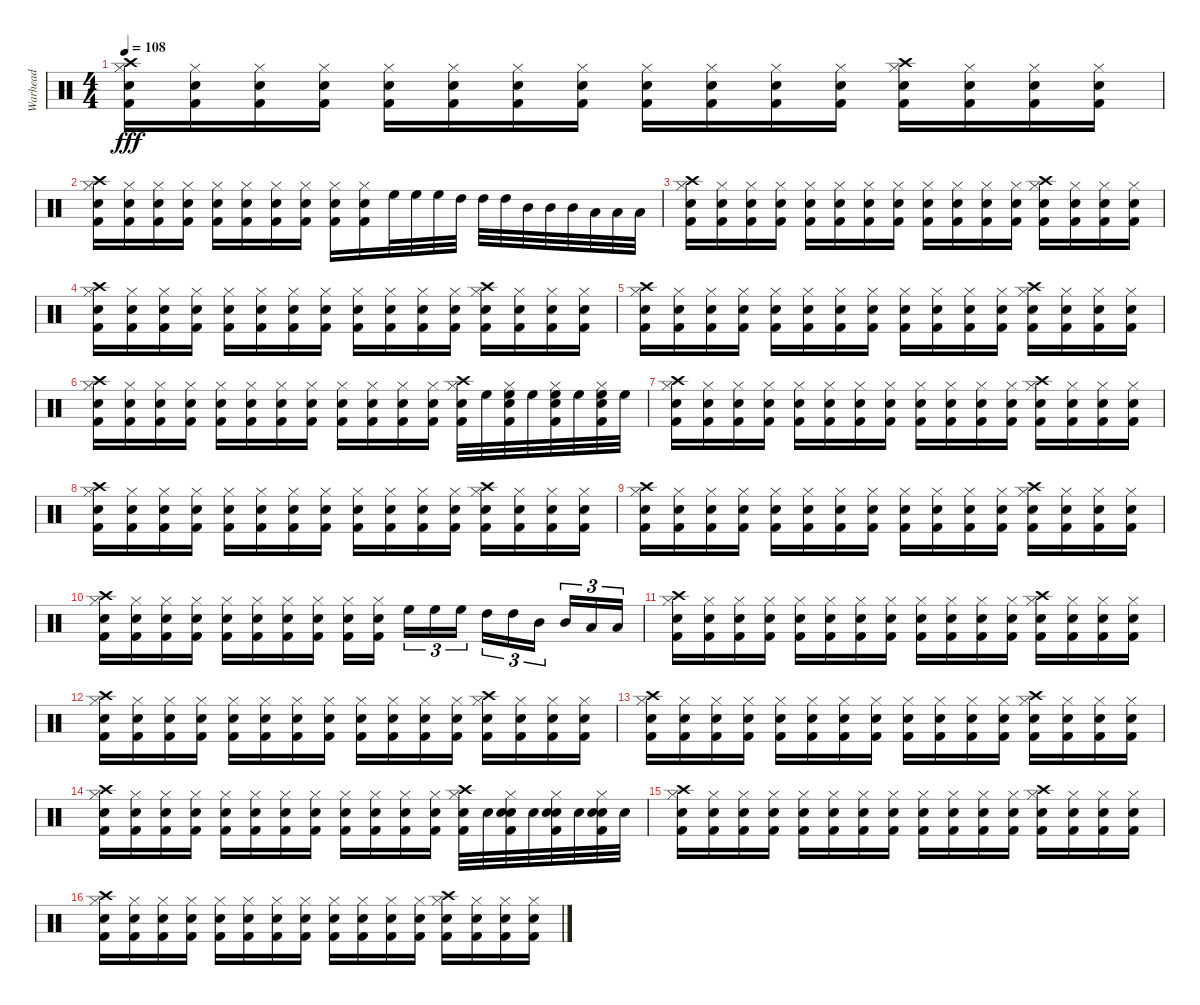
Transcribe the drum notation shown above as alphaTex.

\track ("Warhead" "Warhead") {instrument percussion}
\staff {score}
\articulation defaults
\ts (4 4)
\tempo 108
\clef neutral
\ks c
("Kick (hit) 2" "Electric Snare (hit)" "Crash high (hit)" "Hi-Hat (closed)").16{dy fff} ("Kick (hit) 2" "Electric Snare (hit)" "Hi-Hat (closed)").16 ("Kick (hit) 2" "Electric Snare (hit)" "Hi-Hat (closed)").16 ("Kick (hit) 2" "Electric Snare (hit)" "Hi-Hat (closed)").16 ("Kick (hit) 2" "Electric Snare (hit)" "Hi-Hat (closed)").16 ("Kick (hit) 2" "Electric Snare (hit)" "Hi-Hat (closed)").16 ("Kick (hit) 2" "Electric Snare (hit)" "Hi-Hat (closed)").16 ("Kick (hit) 2" "Electric Snare (hit)" "Hi-Hat (closed)").16 ("Kick (hit) 2" "Electric Snare (hit)" "Hi-Hat (closed)").16 ("Kick (hit) 2" "Electric Snare (hit)" "Hi-Hat (closed)").16 ("Kick (hit) 2" "Electric Snare (hit)" "Hi-Hat (closed)").16 ("Kick (hit) 2" "Electric Snare (hit)" "Hi-Hat (closed)").16 ("Kick (hit) 2" "Electric Snare (hit)" "Crash high (hit)" "Hi-Hat (closed)").16 ("Kick (hit) 2" "Electric Snare (hit)" "Hi-Hat (closed)").16 ("Kick (hit) 2" "Electric Snare (hit)" "Hi-Hat (closed)").16 ("Kick (hit) 2" "Electric Snare (hit)" "Hi-Hat (closed)").16 |
("Kick (hit) 2" "Electric Snare (hit)" "Crash high (hit)" "Hi-Hat (closed)").16 ("Kick (hit) 2" "Electric Snare (hit)" "Hi-Hat (closed)").16 ("Kick (hit) 2" "Electric Snare (hit)" "Hi-Hat (closed)").16 ("Kick (hit) 2" "Electric Snare (hit)" "Hi-Hat (closed)").16 ("Kick (hit) 2" "Electric Snare (hit)" "Hi-Hat (closed)").16 ("Kick (hit) 2" "Electric Snare (hit)" "Hi-Hat (closed)").16 ("Kick (hit) 2" "Electric Snare (hit)" "Hi-Hat (closed)").16 ("Kick (hit) 2" "Electric Snare (hit)" "Hi-Hat (closed)").16 ("Kick (hit) 2" "Electric Snare (hit)" "Hi-Hat (closed)").16 ("Kick (hit) 2" "Electric Snare (hit)" "Hi-Hat (closed)").16 "High Floor Tom (hit)".32 "High Floor Tom (hit)".32 "High Floor Tom (hit)".32 "High Tom (hit)".32 "High Tom (hit)".32 "High Tom (hit)".32 "Mid Tom (hit)".32 "Mid Tom (hit)".32 "Mid Tom (hit)".32 "Low Tom (hit)".32 "Low Tom (hit)".32 "Low Tom (hit)".32 |
("Kick (hit) 2" "Electric Snare (hit)" "Crash high (hit)" "Hi-Hat (closed)").16 ("Kick (hit) 2" "Electric Snare (hit)" "Hi-Hat (closed)").16 ("Kick (hit) 2" "Electric Snare (hit)" "Hi-Hat (closed)").16 ("Kick (hit) 2" "Electric Snare (hit)" "Hi-Hat (closed)").16 ("Kick (hit) 2" "Electric Snare (hit)" "Hi-Hat (closed)").16 ("Kick (hit) 2" "Electric Snare (hit)" "Hi-Hat (closed)").16 ("Kick (hit) 2" "Electric Snare (hit)" "Hi-Hat (closed)").16 ("Kick (hit) 2" "Electric Snare (hit)" "Hi-Hat (closed)").16 ("Kick (hit) 2" "Electric Snare (hit)" "Hi-Hat (closed)").16 ("Kick (hit) 2" "Electric Snare (hit)" "Hi-Hat (closed)").16 ("Kick (hit) 2" "Electric Snare (hit)" "Hi-Hat (closed)").16 ("Kick (hit) 2" "Electric Snare (hit)" "Hi-Hat (closed)").16 ("Kick (hit) 2" "Electric Snare (hit)" "Crash high (hit)" "Hi-Hat (closed)").16 ("Kick (hit) 2" "Electric Snare (hit)" "Hi-Hat (closed)").16 ("Kick (hit) 2" "Electric Snare (hit)" "Hi-Hat (closed)").16 ("Kick (hit) 2" "Electric Snare (hit)" "Hi-Hat (closed)").16 |
("Kick (hit) 2" "Electric Snare (hit)" "Crash high (hit)" "Hi-Hat (closed)").16 ("Kick (hit) 2" "Electric Snare (hit)" "Hi-Hat (closed)").16 ("Kick (hit) 2" "Electric Snare (hit)" "Hi-Hat (closed)").16 ("Kick (hit) 2" "Electric Snare (hit)" "Hi-Hat (closed)").16 ("Kick (hit) 2" "Electric Snare (hit)" "Hi-Hat (closed)").16 ("Kick (hit) 2" "Electric Snare (hit)" "Hi-Hat (closed)").16 ("Kick (hit) 2" "Electric Snare (hit)" "Hi-Hat (closed)").16 ("Kick (hit) 2" "Electric Snare (hit)" "Hi-Hat (closed)").16 ("Kick (hit) 2" "Electric Snare (hit)" "Hi-Hat (closed)").16 ("Kick (hit) 2" "Electric Snare (hit)" "Hi-Hat (closed)").16 ("Kick (hit) 2" "Electric Snare (hit)" "Hi-Hat (closed)").16 ("Kick (hit) 2" "Electric Snare (hit)" "Hi-Hat (closed)").16 ("Kick (hit) 2" "Electric Snare (hit)" "Crash high (hit)" "Hi-Hat (closed)").16 ("Kick (hit) 2" "Electric Snare (hit)" "Hi-Hat (closed)").16 ("Kick (hit) 2" "Electric Snare (hit)" "Hi-Hat (closed)").16 ("Kick (hit) 2" "Electric Snare (hit)" "Hi-Hat (closed)").16 |
("Kick (hit) 2" "Electric Snare (hit)" "Crash high (hit)" "Hi-Hat (closed)").16 ("Kick (hit) 2" "Electric Snare (hit)" "Hi-Hat (closed)").16 ("Kick (hit) 2" "Electric Snare (hit)" "Hi-Hat (closed)").16 ("Kick (hit) 2" "Electric Snare (hit)" "Hi-Hat (closed)").16 ("Kick (hit) 2" "Electric Snare (hit)" "Hi-Hat (closed)").16 ("Kick (hit) 2" "Electric Snare (hit)" "Hi-Hat (closed)").16 ("Kick (hit) 2" "Electric Snare (hit)" "Hi-Hat (closed)").16 ("Kick (hit) 2" "Electric Snare (hit)" "Hi-Hat (closed)").16 ("Kick (hit) 2" "Electric Snare (hit)" "Hi-Hat (closed)").16 ("Kick (hit) 2" "Electric Snare (hit)" "Hi-Hat (closed)").16 ("Kick (hit) 2" "Electric Snare (hit)" "Hi-Hat (closed)").16 ("Kick (hit) 2" "Electric Snare (hit)" "Hi-Hat (closed)").16 ("Kick (hit) 2" "Electric Snare (hit)" "Crash high (hit)" "Hi-Hat (closed)").16 ("Kick (hit) 2" "Electric Snare (hit)" "Hi-Hat (closed)").16 ("Kick (hit) 2" "Electric Snare (hit)" "Hi-Hat (closed)").16 ("Kick (hit) 2" "Electric Snare (hit)" "Hi-Hat (closed)").16 |
("Kick (hit) 2" "Electric Snare (hit)" "Crash high (hit)" "Hi-Hat (closed)").16 ("Kick (hit) 2" "Electric Snare (hit)" "Hi-Hat (closed)").16 ("Kick (hit) 2" "Electric Snare (hit)" "Hi-Hat (closed)").16 ("Kick (hit) 2" "Electric Snare (hit)" "Hi-Hat (closed)").16 ("Kick (hit) 2" "Electric Snare (hit)" "Hi-Hat (closed)").16 ("Kick (hit) 2" "Electric Snare (hit)" "Hi-Hat (closed)").16 ("Kick (hit) 2" "Electric Snare (hit)" "Hi-Hat (closed)").16 ("Kick (hit) 2" "Electric Snare (hit)" "Hi-Hat (closed)").16 ("Kick (hit) 2" "Electric Snare (hit)" "Hi-Hat (closed)").16 ("Kick (hit) 2" "Electric Snare (hit)" "Hi-Hat (closed)").16 ("Kick (hit) 2" "Electric Snare (hit)" "Hi-Hat (closed)").16 ("Kick (hit) 2" "Electric Snare (hit)" "Hi-Hat (closed)").16 ("Kick (hit) 2" "Electric Snare (hit)" "Crash high (hit)" "Hi-Hat (closed)").32 "High Floor Tom (hit)".32 ("Kick (hit) 2" "Electric Snare (hit)" "Hi-Hat (closed)" "High Floor Tom (hit)").32 "High Floor Tom (hit)".32 ("Kick (hit) 2" "Electric Snare (hit)" "Hi-Hat (closed)" "High Floor Tom (hit)").32 "High Floor Tom (hit)".32 ("Kick (hit) 2" "Electric Snare (hit)" "Hi-Hat (closed)" "High Floor Tom (hit)").32 "High Floor Tom (hit)".32 |
("Kick (hit) 2" "Electric Snare (hit)" "Crash high (hit)" "Hi-Hat (closed)").16 ("Kick (hit) 2" "Electric Snare (hit)" "Hi-Hat (closed)").16 ("Kick (hit) 2" "Electric Snare (hit)" "Hi-Hat (closed)").16 ("Kick (hit) 2" "Electric Snare (hit)" "Hi-Hat (closed)").16 ("Kick (hit) 2" "Electric Snare (hit)" "Hi-Hat (closed)").16 ("Kick (hit) 2" "Electric Snare (hit)" "Hi-Hat (closed)").16 ("Kick (hit) 2" "Electric Snare (hit)" "Hi-Hat (closed)").16 ("Kick (hit) 2" "Electric Snare (hit)" "Hi-Hat (closed)").16 ("Kick (hit) 2" "Electric Snare (hit)" "Hi-Hat (closed)").16 ("Kick (hit) 2" "Electric Snare (hit)" "Hi-Hat (closed)").16 ("Kick (hit) 2" "Electric Snare (hit)" "Hi-Hat (closed)").16 ("Kick (hit) 2" "Electric Snare (hit)" "Hi-Hat (closed)").16 ("Kick (hit) 2" "Electric Snare (hit)" "Crash high (hit)" "Hi-Hat (closed)").16 ("Kick (hit) 2" "Electric Snare (hit)" "Hi-Hat (closed)").16 ("Kick (hit) 2" "Electric Snare (hit)" "Hi-Hat (closed)").16 ("Kick (hit) 2" "Electric Snare (hit)" "Hi-Hat (closed)").16 |
("Kick (hit) 2" "Electric Snare (hit)" "Crash high (hit)" "Hi-Hat (closed)").16 ("Kick (hit) 2" "Electric Snare (hit)" "Hi-Hat (closed)").16 ("Kick (hit) 2" "Electric Snare (hit)" "Hi-Hat (closed)").16 ("Kick (hit) 2" "Electric Snare (hit)" "Hi-Hat (closed)").16 ("Kick (hit) 2" "Electric Snare (hit)" "Hi-Hat (closed)").16 ("Kick (hit) 2" "Electric Snare (hit)" "Hi-Hat (closed)").16 ("Kick (hit) 2" "Electric Snare (hit)" "Hi-Hat (closed)").16 ("Kick (hit) 2" "Electric Snare (hit)" "Hi-Hat (closed)").16 ("Kick (hit) 2" "Electric Snare (hit)" "Hi-Hat (closed)").16 ("Kick (hit) 2" "Electric Snare (hit)" "Hi-Hat (closed)").16 ("Kick (hit) 2" "Electric Snare (hit)" "Hi-Hat (closed)").16 ("Kick (hit) 2" "Electric Snare (hit)" "Hi-Hat (closed)").16 ("Kick (hit) 2" "Electric Snare (hit)" "Crash high (hit)" "Hi-Hat (closed)").16 ("Kick (hit) 2" "Electric Snare (hit)" "Hi-Hat (closed)").16 ("Kick (hit) 2" "Electric Snare (hit)" "Hi-Hat (closed)").16 ("Kick (hit) 2" "Electric Snare (hit)" "Hi-Hat (closed)").16 |
("Kick (hit) 2" "Electric Snare (hit)" "Crash high (hit)" "Hi-Hat (closed)").16 ("Kick (hit) 2" "Electric Snare (hit)" "Hi-Hat (closed)").16 ("Kick (hit) 2" "Electric Snare (hit)" "Hi-Hat (closed)").16 ("Kick (hit) 2" "Electric Snare (hit)" "Hi-Hat (closed)").16 ("Kick (hit) 2" "Electric Snare (hit)" "Hi-Hat (closed)").16 ("Kick (hit) 2" "Electric Snare (hit)" "Hi-Hat (closed)").16 ("Kick (hit) 2" "Electric Snare (hit)" "Hi-Hat (closed)").16 ("Kick (hit) 2" "Electric Snare (hit)" "Hi-Hat (closed)").16 ("Kick (hit) 2" "Electric Snare (hit)" "Hi-Hat (closed)").16 ("Kick (hit) 2" "Electric Snare (hit)" "Hi-Hat (closed)").16 ("Kick (hit) 2" "Electric Snare (hit)" "Hi-Hat (closed)").16 ("Kick (hit) 2" "Electric Snare (hit)" "Hi-Hat (closed)").16 ("Kick (hit) 2" "Electric Snare (hit)" "Crash high (hit)" "Hi-Hat (closed)").16 ("Kick (hit) 2" "Electric Snare (hit)" "Hi-Hat (closed)").16 ("Kick (hit) 2" "Electric Snare (hit)" "Hi-Hat (closed)").16 ("Kick (hit) 2" "Electric Snare (hit)" "Hi-Hat (closed)").16 |
("Kick (hit) 2" "Electric Snare (hit)" "Crash high (hit)" "Hi-Hat (closed)").16 ("Kick (hit) 2" "Electric Snare (hit)" "Hi-Hat (closed)").16 ("Kick (hit) 2" "Electric Snare (hit)" "Hi-Hat (closed)").16 ("Kick (hit) 2" "Electric Snare (hit)" "Hi-Hat (closed)").16 ("Kick (hit) 2" "Electric Snare (hit)" "Hi-Hat (closed)").16 ("Kick (hit) 2" "Electric Snare (hit)" "Hi-Hat (closed)").16 ("Kick (hit) 2" "Electric Snare (hit)" "Hi-Hat (closed)").16 ("Kick (hit) 2" "Electric Snare (hit)" "Hi-Hat (closed)").16 ("Kick (hit) 2" "Electric Snare (hit)" "Hi-Hat (closed)").16 ("Kick (hit) 2" "Electric Snare (hit)" "Hi-Hat (closed)").16{beam splitsecondary} "High Floor Tom (hit)".16{tu (3 2)} "High Floor Tom (hit)".16{tu (3 2)} "High Floor Tom (hit)".16{tu (3 2)} "High Tom (hit)".16{tu (3 2)} "High Tom (hit)".16{tu (3 2)} "Mid Tom (hit)".16{tu (3 2) beam splitsecondary} "Mid Tom (hit)".16{tu (3 2)} "Low Tom (hit)".16{tu (3 2)} "Low Tom (hit)".16{tu (3 2)} |
("Kick (hit) 2" "Electric Snare (hit)" "Crash high (hit)" "Hi-Hat (closed)").16 ("Kick (hit) 2" "Electric Snare (hit)" "Hi-Hat (closed)").16 ("Kick (hit) 2" "Electric Snare (hit)" "Hi-Hat (closed)").16 ("Kick (hit) 2" "Electric Snare (hit)" "Hi-Hat (closed)").16 ("Kick (hit) 2" "Electric Snare (hit)" "Hi-Hat (closed)").16 ("Kick (hit) 2" "Electric Snare (hit)" "Hi-Hat (closed)").16 ("Kick (hit) 2" "Electric Snare (hit)" "Hi-Hat (closed)").16 ("Kick (hit) 2" "Electric Snare (hit)" "Hi-Hat (closed)").16 ("Kick (hit) 2" "Electric Snare (hit)" "Hi-Hat (closed)").16 ("Kick (hit) 2" "Electric Snare (hit)" "Hi-Hat (closed)").16 ("Kick (hit) 2" "Electric Snare (hit)" "Hi-Hat (closed)").16 ("Kick (hit) 2" "Electric Snare (hit)" "Hi-Hat (closed)").16 ("Kick (hit) 2" "Electric Snare (hit)" "Crash high (hit)" "Hi-Hat (closed)").16 ("Kick (hit) 2" "Electric Snare (hit)" "Hi-Hat (closed)").16 ("Kick (hit) 2" "Electric Snare (hit)" "Hi-Hat (closed)").16 ("Kick (hit) 2" "Electric Snare (hit)" "Hi-Hat (closed)").16 |
("Kick (hit) 2" "Electric Snare (hit)" "Crash high (hit)" "Hi-Hat (closed)").16 ("Kick (hit) 2" "Electric Snare (hit)" "Hi-Hat (closed)").16 ("Kick (hit) 2" "Electric Snare (hit)" "Hi-Hat (closed)").16 ("Kick (hit) 2" "Electric Snare (hit)" "Hi-Hat (closed)").16 ("Kick (hit) 2" "Electric Snare (hit)" "Hi-Hat (closed)").16 ("Kick (hit) 2" "Electric Snare (hit)" "Hi-Hat (closed)").16 ("Kick (hit) 2" "Electric Snare (hit)" "Hi-Hat (closed)").16 ("Kick (hit) 2" "Electric Snare (hit)" "Hi-Hat (closed)").16 ("Kick (hit) 2" "Electric Snare (hit)" "Hi-Hat (closed)").16 ("Kick (hit) 2" "Electric Snare (hit)" "Hi-Hat (closed)").16 ("Kick (hit) 2" "Electric Snare (hit)" "Hi-Hat (closed)").16 ("Kick (hit) 2" "Electric Snare (hit)" "Hi-Hat (closed)").16 ("Kick (hit) 2" "Electric Snare (hit)" "Crash high (hit)" "Hi-Hat (closed)").16 ("Kick (hit) 2" "Electric Snare (hit)" "Hi-Hat (closed)").16 ("Kick (hit) 2" "Electric Snare (hit)" "Hi-Hat (closed)").16 ("Kick (hit) 2" "Electric Snare (hit)" "Hi-Hat (closed)").16 |
("Kick (hit) 2" "Electric Snare (hit)" "Crash high (hit)" "Hi-Hat (closed)").16 ("Kick (hit) 2" "Electric Snare (hit)" "Hi-Hat (closed)").16 ("Kick (hit) 2" "Electric Snare (hit)" "Hi-Hat (closed)").16 ("Kick (hit) 2" "Electric Snare (hit)" "Hi-Hat (closed)").16 ("Kick (hit) 2" "Electric Snare (hit)" "Hi-Hat (closed)").16 ("Kick (hit) 2" "Electric Snare (hit)" "Hi-Hat (closed)").16 ("Kick (hit) 2" "Electric Snare (hit)" "Hi-Hat (closed)").16 ("Kick (hit) 2" "Electric Snare (hit)" "Hi-Hat (closed)").16 ("Kick (hit) 2" "Electric Snare (hit)" "Hi-Hat (closed)").16 ("Kick (hit) 2" "Electric Snare (hit)" "Hi-Hat (closed)").16 ("Kick (hit) 2" "Electric Snare (hit)" "Hi-Hat (closed)").16 ("Kick (hit) 2" "Electric Snare (hit)" "Hi-Hat (closed)").16 ("Kick (hit) 2" "Electric Snare (hit)" "Crash high (hit)" "Hi-Hat (closed)").16 ("Kick (hit) 2" "Electric Snare (hit)" "Hi-Hat (closed)").16 ("Kick (hit) 2" "Electric Snare (hit)" "Hi-Hat (closed)").16 ("Kick (hit) 2" "Electric Snare (hit)" "Hi-Hat (closed)").16 |
("Kick (hit) 2" "Electric Snare (hit)" "Crash high (hit)" "Hi-Hat (closed)").16 ("Kick (hit) 2" "Electric Snare (hit)" "Hi-Hat (closed)").16 ("Kick (hit) 2" "Electric Snare (hit)" "Hi-Hat (closed)").16 ("Kick (hit) 2" "Electric Snare (hit)" "Hi-Hat (closed)").16 ("Kick (hit) 2" "Electric Snare (hit)" "Hi-Hat (closed)").16 ("Kick (hit) 2" "Electric Snare (hit)" "Hi-Hat (closed)").16 ("Kick (hit) 2" "Electric Snare (hit)" "Hi-Hat (closed)").16 ("Kick (hit) 2" "Electric Snare (hit)" "Hi-Hat (closed)").16 ("Kick (hit) 2" "Electric Snare (hit)" "Hi-Hat (closed)").16 ("Kick (hit) 2" "Electric Snare (hit)" "Hi-Hat (closed)").16 ("Kick (hit) 2" "Electric Snare (hit)" "Hi-Hat (closed)").16 ("Kick (hit) 2" "Electric Snare (hit)" "Hi-Hat (closed)").16 ("Kick (hit) 2" "Electric Snare (hit)" "Crash high (hit)" "Hi-Hat (closed)").32 "Electric Snare (hit)".32 ("Kick (hit) 2" "Electric Snare (hit)" "Hi-Hat (closed)" "Electric Snare (hit)").32 "Electric Snare (hit)".32 ("Kick (hit) 2" "Electric Snare (hit)" "Hi-Hat (closed)" "Electric Snare (hit)").32 "Electric Snare (hit)".32 ("Kick (hit) 2" "Electric Snare (hit)" "Hi-Hat (closed)" "Electric Snare (hit)").32 "Electric Snare (hit)".32 |
("Kick (hit) 2" "Electric Snare (hit)" "Crash high (hit)" "Hi-Hat (closed)").16 ("Kick (hit) 2" "Electric Snare (hit)" "Hi-Hat (closed)").16 ("Kick (hit) 2" "Electric Snare (hit)" "Hi-Hat (closed)").16 ("Kick (hit) 2" "Electric Snare (hit)" "Hi-Hat (closed)").16 ("Kick (hit) 2" "Electric Snare (hit)" "Hi-Hat (closed)").16 ("Kick (hit) 2" "Electric Snare (hit)" "Hi-Hat (closed)").16 ("Kick (hit) 2" "Electric Snare (hit)" "Hi-Hat (closed)").16 ("Kick (hit) 2" "Electric Snare (hit)" "Hi-Hat (closed)").16 ("Kick (hit) 2" "Electric Snare (hit)" "Hi-Hat (closed)").16 ("Kick (hit) 2" "Electric Snare (hit)" "Hi-Hat (closed)").16 ("Kick (hit) 2" "Electric Snare (hit)" "Hi-Hat (closed)").16 ("Kick (hit) 2" "Electric Snare (hit)" "Hi-Hat (closed)").16 ("Kick (hit) 2" "Electric Snare (hit)" "Crash high (hit)" "Hi-Hat (closed)").16 ("Kick (hit) 2" "Electric Snare (hit)" "Hi-Hat (closed)").16 ("Kick (hit) 2" "Electric Snare (hit)" "Hi-Hat (closed)").16 ("Kick (hit) 2" "Electric Snare (hit)" "Hi-Hat (closed)").16 |
("Kick (hit) 2" "Electric Snare (hit)" "Crash high (hit)" "Hi-Hat (closed)").16 ("Kick (hit) 2" "Electric Snare (hit)" "Hi-Hat (closed)").16 ("Kick (hit) 2" "Electric Snare (hit)" "Hi-Hat (closed)").16 ("Kick (hit) 2" "Electric Snare (hit)" "Hi-Hat (closed)").16 ("Kick (hit) 2" "Electric Snare (hit)" "Hi-Hat (closed)").16 ("Kick (hit) 2" "Electric Snare (hit)" "Hi-Hat (closed)").16 ("Kick (hit) 2" "Electric Snare (hit)" "Hi-Hat (closed)").16 ("Kick (hit) 2" "Electric Snare (hit)" "Hi-Hat (closed)").16 ("Kick (hit) 2" "Electric Snare (hit)" "Hi-Hat (closed)").16 ("Kick (hit) 2" "Electric Snare (hit)" "Hi-Hat (closed)").16 ("Kick (hit) 2" "Electric Snare (hit)" "Hi-Hat (closed)").16 ("Kick (hit) 2" "Electric Snare (hit)" "Hi-Hat (closed)").16 ("Kick (hit) 2" "Electric Snare (hit)" "Crash high (hit)" "Hi-Hat (closed)").16 ("Kick (hit) 2" "Electric Snare (hit)" "Hi-Hat (closed)").16 ("Kick (hit) 2" "Electric Snare (hit)" "Hi-Hat (closed)").16 ("Kick (hit) 2" "Electric Snare (hit)" "Hi-Hat (closed)").16
